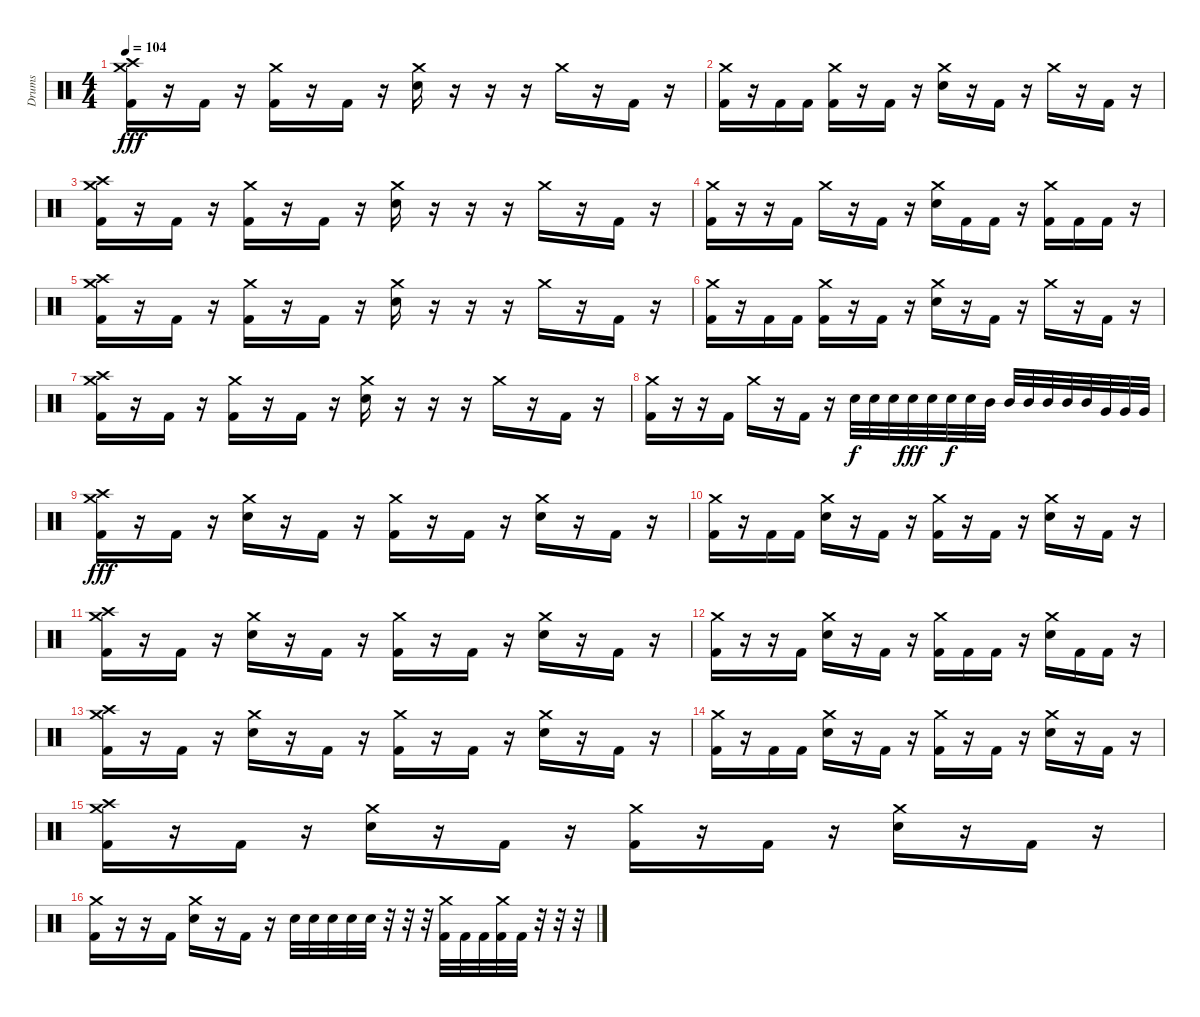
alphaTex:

\track ("Drums" "Drums") {instrument percussion}
\staff {score}
\articulation defaults
\ts (4 4)
\tempo 104
\clef neutral
\ks c
("Crash medium (hit)" "Crash high (hit)" "Kick (hit) 2").16{dy fff} r.16 "Kick (hit) 2".16 r.16 ("Crash medium (hit)" "Kick (hit) 2").16 r.16 "Kick (hit) 2".16 r.16 ("Crash medium (hit)" "Electric Snare (hit)").16 r.16 r.16 r.16 "Crash medium (hit)".16 r.16 "Kick (hit) 2".16 r.16 |
("Crash medium (hit)" "Kick (hit) 2").16 r.16 "Kick (hit) 2".16 "Kick (hit) 2".16 ("Crash medium (hit)" "Kick (hit) 2").16 r.16 "Kick (hit) 2".16 r.16 ("Crash medium (hit)" "Electric Snare (hit)").16 r.16 "Kick (hit) 2".16 r.16 "Crash medium (hit)".16 r.16 "Kick (hit) 2".16 r.16 |
("Crash medium (hit)" "Crash high (hit)" "Kick (hit) 2").16 r.16 "Kick (hit) 2".16 r.16 ("Crash medium (hit)" "Kick (hit) 2").16 r.16 "Kick (hit) 2".16 r.16 ("Crash medium (hit)" "Electric Snare (hit)").16 r.16 r.16 r.16 "Crash medium (hit)".16 r.16 "Kick (hit) 2".16 r.16 |
("Crash medium (hit)" "Kick (hit) 2").16 r.16 r.16 "Kick (hit) 2".16 "Crash medium (hit)".16 r.16 "Kick (hit) 2".16 r.16 ("Crash medium (hit)" "Electric Snare (hit)").16 "Kick (hit) 2".16 "Kick (hit) 2".16 r.16 ("Crash medium (hit)" "Kick (hit) 2").16 "Kick (hit) 2".16 "Kick (hit) 2".16 r.16 |
("Crash medium (hit)" "Crash high (hit)" "Kick (hit) 2").16 r.16 "Kick (hit) 2".16 r.16 ("Crash medium (hit)" "Kick (hit) 2").16 r.16 "Kick (hit) 2".16 r.16 ("Crash medium (hit)" "Electric Snare (hit)").16 r.16 r.16 r.16 "Crash medium (hit)".16 r.16 "Kick (hit) 2".16 r.16 |
("Crash medium (hit)" "Kick (hit) 2").16 r.16 "Kick (hit) 2".16 "Kick (hit) 2".16 ("Crash medium (hit)" "Kick (hit) 2").16 r.16 "Kick (hit) 2".16 r.16 ("Crash medium (hit)" "Electric Snare (hit)").16 r.16 "Kick (hit) 2".16 r.16 "Crash medium (hit)".16 r.16 "Kick (hit) 2".16 r.16 |
("Crash medium (hit)" "Crash high (hit)" "Kick (hit) 2").16 r.16 "Kick (hit) 2".16 r.16 ("Crash medium (hit)" "Kick (hit) 2").16 r.16 "Kick (hit) 2".16 r.16 ("Crash medium (hit)" "Electric Snare (hit)").16 r.16 r.16 r.16 "Crash medium (hit)".16 r.16 "Kick (hit) 2".16 r.16 |
("Crash medium (hit)" "Kick (hit) 2").16 r.16 r.16 "Kick (hit) 2".16 "Crash medium (hit)".16 r.16 "Kick (hit) 2".16 r.16 "Electric Snare (hit)".32{dy f} "Electric Snare (hit)".32 "Electric Snare (hit)".32 "Electric Snare (hit)".32{dy fff} "Electric Snare (hit)".32 "Electric Snare (hit)".32{dy f} "Electric Snare (hit)".32 "Mid Tom (hit)".32 "Mid Tom (hit)".32 "Mid Tom (hit)".32 "Mid Tom (hit)".32 "Mid Tom (hit)".32 "Mid Tom (hit)".32 "Very Low Tom (hit)".32 "Very Low Tom (hit)".32 "Very Low Tom (hit)".32 |
("Crash medium (hit)" "Crash high (hit)" "Kick (hit) 2").16{dy fff} r.16 "Kick (hit) 2".16 r.16 ("Crash medium (hit)" "Electric Snare (hit)").16 r.16 "Kick (hit) 2".16 r.16 ("Crash medium (hit)" "Kick (hit) 2").16 r.16 "Kick (hit) 2".16 r.16 ("Crash medium (hit)" "Electric Snare (hit)").16 r.16 "Kick (hit) 2".16 r.16 |
("Crash medium (hit)" "Kick (hit) 2").16 r.16 "Kick (hit) 2".16 "Kick (hit) 2".16 ("Crash medium (hit)" "Electric Snare (hit)").16 r.16 "Kick (hit) 2".16 r.16 ("Crash medium (hit)" "Kick (hit) 2").16 r.16 "Kick (hit) 2".16 r.16 ("Crash medium (hit)" "Electric Snare (hit)").16 r.16 "Kick (hit) 2".16 r.16 |
("Crash medium (hit)" "Crash high (hit)" "Kick (hit) 2").16 r.16 "Kick (hit) 2".16 r.16 ("Crash medium (hit)" "Electric Snare (hit)").16 r.16 "Kick (hit) 2".16 r.16 ("Crash medium (hit)" "Kick (hit) 2").16 r.16 "Kick (hit) 2".16 r.16 ("Crash medium (hit)" "Electric Snare (hit)").16 r.16 "Kick (hit) 2".16 r.16 |
("Crash medium (hit)" "Kick (hit) 2").16 r.16 r.16 "Kick (hit) 2".16 ("Crash medium (hit)" "Electric Snare (hit)").16 r.16 "Kick (hit) 2".16 r.16 ("Crash medium (hit)" "Kick (hit) 2").16 "Kick (hit) 2".16 "Kick (hit) 2".16 r.16 ("Crash medium (hit)" "Electric Snare (hit)").16 "Kick (hit) 2".16 "Kick (hit) 2".16 r.16 |
("Crash medium (hit)" "Crash high (hit)" "Kick (hit) 2").16 r.16 "Kick (hit) 2".16 r.16 ("Crash medium (hit)" "Electric Snare (hit)").16 r.16 "Kick (hit) 2".16 r.16 ("Crash medium (hit)" "Kick (hit) 2").16 r.16 "Kick (hit) 2".16 r.16 ("Crash medium (hit)" "Electric Snare (hit)").16 r.16 "Kick (hit) 2".16 r.16 |
("Crash medium (hit)" "Kick (hit) 2").16 r.16 "Kick (hit) 2".16 "Kick (hit) 2".16 ("Crash medium (hit)" "Electric Snare (hit)").16 r.16 "Kick (hit) 2".16 r.16 ("Crash medium (hit)" "Kick (hit) 2").16 r.16 "Kick (hit) 2".16 r.16 ("Crash medium (hit)" "Electric Snare (hit)").16 r.16 "Kick (hit) 2".16 r.16 |
("Crash medium (hit)" "Crash high (hit)" "Kick (hit) 2").16 r.16 "Kick (hit) 2".16 r.16 ("Crash medium (hit)" "Electric Snare (hit)").16 r.16 "Kick (hit) 2".16 r.16 ("Crash medium (hit)" "Kick (hit) 2").16 r.16 "Kick (hit) 2".16 r.16 ("Crash medium (hit)" "Electric Snare (hit)").16 r.16 "Kick (hit) 2".16 r.16 |
("Crash medium (hit)" "Kick (hit) 2").16 r.16 r.16 "Kick (hit) 2".16 ("Crash medium (hit)" "Electric Snare (hit)").16 r.16 "Kick (hit) 2".16 r.16 "Electric Snare (hit)".32 "Electric Snare (hit)".32 "Electric Snare (hit)".32 "Electric Snare (hit)".32 "Electric Snare (hit)".32 r.32 r.32 r.32 ("Crash medium (hit)" "Kick (hit) 2").32 "Kick (hit) 2".32 "Kick (hit) 2".32 ("Crash medium (hit)" "Kick (hit) 2").32 "Kick (hit) 2".32 r.32 r.32 r.32
